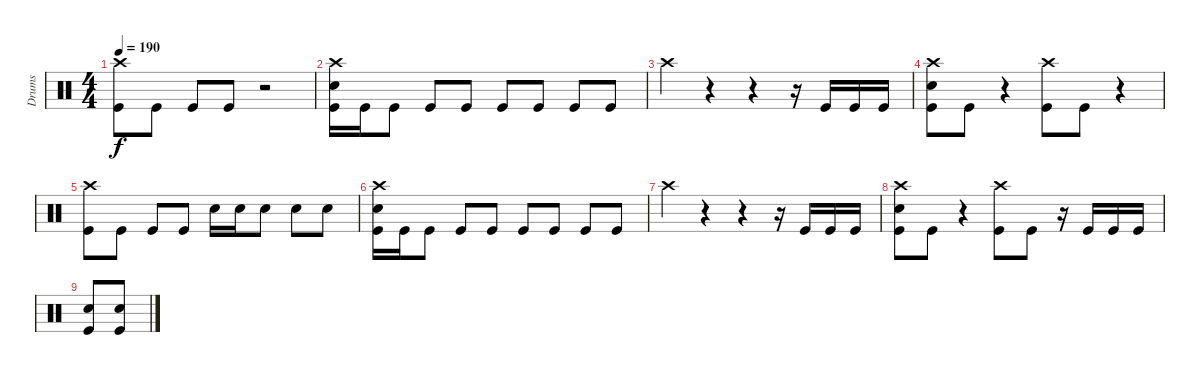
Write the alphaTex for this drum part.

\track ("Drums" "Drums") {instrument percussion}
\staff {score}
\articulation defaults
\ts (4 4)
\tempo 190
\clef neutral
\ks c
("Crash high (hit)" "Kick (hit)").8{dy f} "Kick (hit)".8 "Kick (hit)".8 "Kick (hit)".8 r.2 |
("Crash high (hit)" "Snare (hit) 2" "Kick (hit)").16 "Kick (hit)".16 "Kick (hit)".8 "Kick (hit)".8 "Kick (hit)".8 "Kick (hit)".8 "Kick (hit)".8 "Kick (hit)".8 "Kick (hit)".8 |
"Crash high (hit)".4 r.4 r.4 r.16 "Kick (hit)".16 "Kick (hit)".16 "Kick (hit)".16 |
("Crash high (hit)" "Snare (hit) 2" "Kick (hit)").8 "Kick (hit)".8 r.4 ("Crash high (hit)" "Kick (hit)").8 "Kick (hit)".8 r.4 |
("Crash high (hit)" "Kick (hit)").8 "Kick (hit)".8 "Kick (hit)".8 "Kick (hit)".8 "Snare (hit) 2".16 "Snare (hit) 2".16 "Snare (hit) 2".8 "Snare (hit) 2".8 "Snare (hit) 2".8 |
("Crash high (hit)" "Snare (hit) 2" "Kick (hit)").16 "Kick (hit)".16 "Kick (hit)".8 "Kick (hit)".8 "Kick (hit)".8 "Kick (hit)".8 "Kick (hit)".8 "Kick (hit)".8 "Kick (hit)".8 |
"Crash high (hit)".4 r.4 r.4 r.16 "Kick (hit)".16 "Kick (hit)".16 "Kick (hit)".16 |
("Crash high (hit)" "Snare (hit) 2" "Kick (hit)").8 "Kick (hit)".8 r.4 ("Crash high (hit)" "Kick (hit)").8 "Kick (hit)".8 r.16 "Kick (hit)".16 "Kick (hit)".16 "Kick (hit)".16 |
("Snare (hit) 2" "Kick (hit)").8 ("Snare (hit) 2" "Kick (hit)").8
